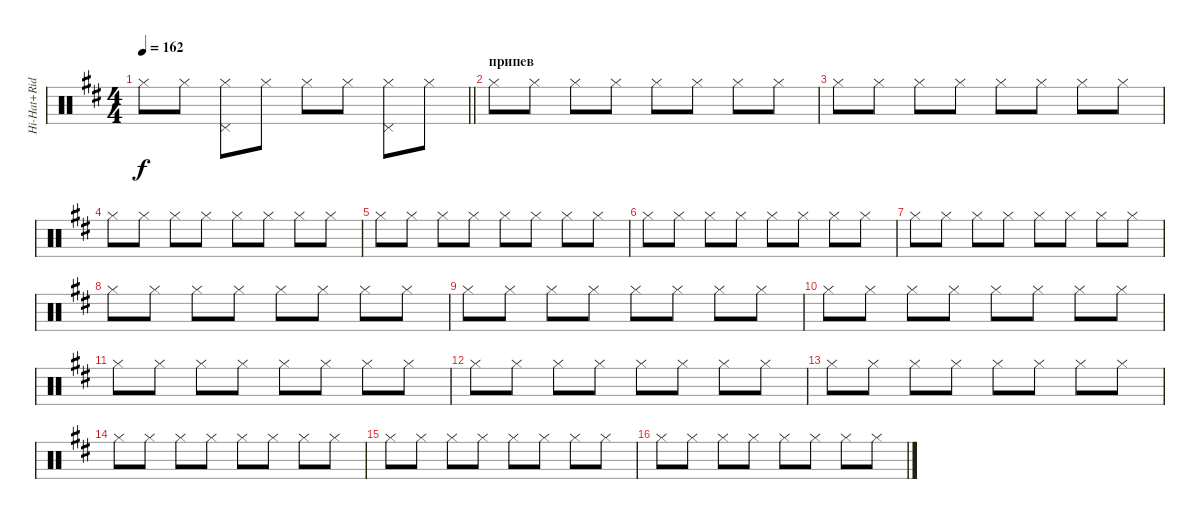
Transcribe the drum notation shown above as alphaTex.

\track ("Hi-Hat+Ride" "Hi-Hat+Rid") {instrument percussion}
\staff {score}
\articulation defaults
\ts (4 4)
\tempo 162
\clef neutral
\barLineRight lightlight
\ks bminor "Hi-Hat (closed)".8{dy f} "Hi-Hat (closed)".8
("Hi-Hat (closed)" "Pedal Hi-Hat (hit)").8 "Hi-Hat (closed)".8 "Hi-Hat (closed)".8 "Hi-Hat (closed)".8 ("Hi-Hat (closed)" "Pedal Hi-Hat (hit)").8 "Hi-Hat (closed)".8 |
\section ("" "припев")
"Hi-Hat (closed)".8 "Hi-Hat (closed)".8 "Hi-Hat (closed)".8 "Hi-Hat (closed)".8 "Hi-Hat (closed)".8 "Hi-Hat (closed)".8 "Hi-Hat (closed)".8 "Hi-Hat (closed)".8 |
"Hi-Hat (closed)".8 "Hi-Hat (closed)".8 "Hi-Hat (closed)".8 "Hi-Hat (closed)".8 "Hi-Hat (closed)".8 "Hi-Hat (closed)".8 "Hi-Hat (closed)".8 "Hi-Hat (closed)".8 |
"Hi-Hat (closed)".8 "Hi-Hat (closed)".8 "Hi-Hat (closed)".8 "Hi-Hat (closed)".8 "Hi-Hat (closed)".8 "Hi-Hat (closed)".8 "Hi-Hat (closed)".8 "Hi-Hat (closed)".8 |
"Hi-Hat (closed)".8 "Hi-Hat (closed)".8 "Hi-Hat (closed)".8 "Hi-Hat (closed)".8 "Hi-Hat (closed)".8 "Hi-Hat (closed)".8 "Hi-Hat (closed)".8 "Hi-Hat (closed)".8 |
"Hi-Hat (closed)".8 "Hi-Hat (closed)".8 "Hi-Hat (closed)".8 "Hi-Hat (closed)".8 "Hi-Hat (closed)".8 "Hi-Hat (closed)".8 "Hi-Hat (closed)".8 "Hi-Hat (closed)".8 |
"Hi-Hat (closed)".8 "Hi-Hat (closed)".8 "Hi-Hat (closed)".8 "Hi-Hat (closed)".8 "Hi-Hat (closed)".8 "Hi-Hat (closed)".8 "Hi-Hat (closed)".8 "Hi-Hat (closed)".8 |
"Hi-Hat (closed)".8 "Hi-Hat (closed)".8 "Hi-Hat (closed)".8 "Hi-Hat (closed)".8 "Hi-Hat (closed)".8 "Hi-Hat (closed)".8 "Hi-Hat (closed)".8 "Hi-Hat (closed)".8 |
"Hi-Hat (closed)".8 "Hi-Hat (closed)".8 "Hi-Hat (closed)".8 "Hi-Hat (closed)".8 "Hi-Hat (closed)".8 "Hi-Hat (closed)".8 "Hi-Hat (closed)".8 "Hi-Hat (closed)".8 |
"Hi-Hat (closed)".8 "Hi-Hat (closed)".8 "Hi-Hat (closed)".8 "Hi-Hat (closed)".8 "Hi-Hat (closed)".8 "Hi-Hat (closed)".8 "Hi-Hat (closed)".8 "Hi-Hat (closed)".8 |
"Hi-Hat (closed)".8 "Hi-Hat (closed)".8 "Hi-Hat (closed)".8 "Hi-Hat (closed)".8 "Hi-Hat (closed)".8 "Hi-Hat (closed)".8 "Hi-Hat (closed)".8 "Hi-Hat (closed)".8 |
"Hi-Hat (closed)".8 "Hi-Hat (closed)".8 "Hi-Hat (closed)".8 "Hi-Hat (closed)".8 "Hi-Hat (closed)".8 "Hi-Hat (closed)".8 "Hi-Hat (closed)".8 "Hi-Hat (closed)".8 |
"Hi-Hat (closed)".8 "Hi-Hat (closed)".8 "Hi-Hat (closed)".8 "Hi-Hat (closed)".8 "Hi-Hat (closed)".8 "Hi-Hat (closed)".8 "Hi-Hat (closed)".8 "Hi-Hat (closed)".8 |
"Hi-Hat (closed)".8 "Hi-Hat (closed)".8 "Hi-Hat (closed)".8 "Hi-Hat (closed)".8 "Hi-Hat (closed)".8 "Hi-Hat (closed)".8 "Hi-Hat (closed)".8 "Hi-Hat (closed)".8 |
"Hi-Hat (closed)".8 "Hi-Hat (closed)".8 "Hi-Hat (closed)".8 "Hi-Hat (closed)".8 "Hi-Hat (closed)".8 "Hi-Hat (closed)".8 "Hi-Hat (closed)".8 "Hi-Hat (closed)".8 |
"Hi-Hat (closed)".8 "Hi-Hat (closed)".8 "Hi-Hat (closed)".8 "Hi-Hat (closed)".8 "Hi-Hat (closed)".8 "Hi-Hat (closed)".8 "Hi-Hat (closed)".8 "Hi-Hat (closed)".8
